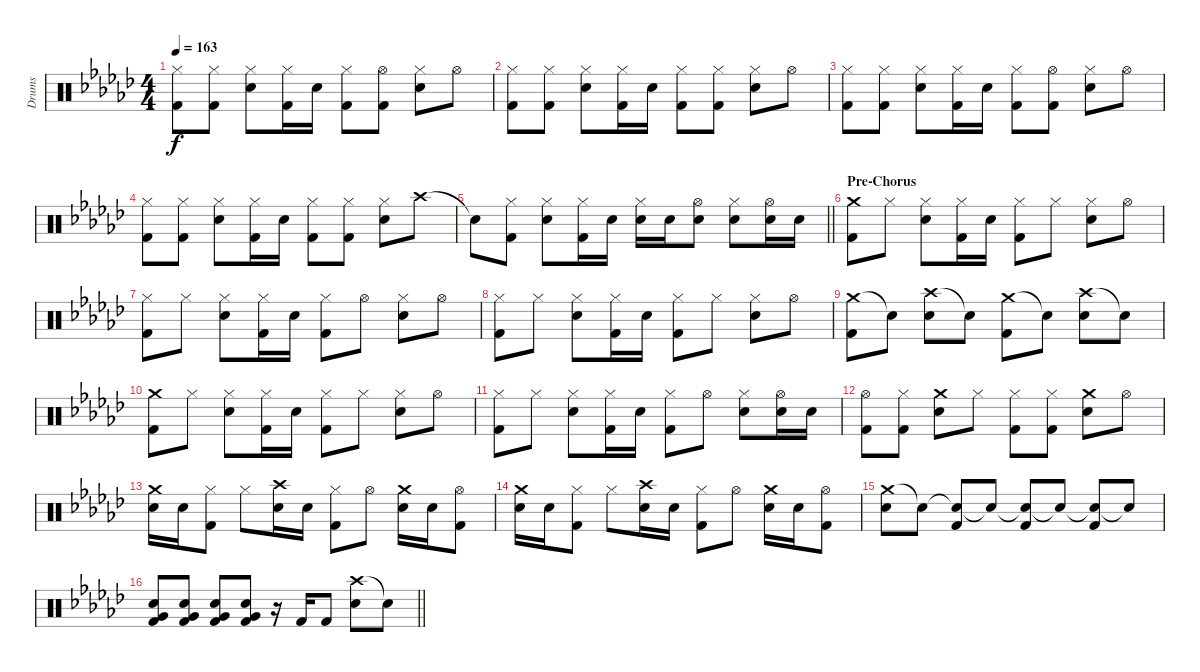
\track ("Drums" "Drums") {mute instrument percussion}
\staff {score}
\articulation defaults
\ts (4 4)
\tempo 163
\clef neutral
\ks gb
("Hi-Hat (closed)" "Kick (hit) 2").8{dy f} ("Hi-Hat (closed)" "Kick (hit) 2").8 ("Hi-Hat (closed)" "Snare (hit) 2").8 ("Hi-Hat (closed)" "Kick (hit) 2").16 "Snare (hit) 2".16 ("Hi-Hat (closed)" "Kick (hit) 2").8 ("Hi-Hat (open)" "Kick (hit) 2").8 ("Hi-Hat (closed)" "Snare (hit) 2").8 "Hi-Hat (open)".8 |
("Hi-Hat (closed)" "Kick (hit) 2").8 ("Hi-Hat (closed)" "Kick (hit) 2").8 ("Hi-Hat (closed)" "Snare (hit) 2").8 ("Hi-Hat (closed)" "Kick (hit) 2").16 "Snare (hit) 2".16 ("Hi-Hat (closed)" "Kick (hit) 2").8 ("Hi-Hat (closed)" "Kick (hit) 2").8 ("Hi-Hat (closed)" "Snare (hit) 2").8 "Hi-Hat (open)".8 |
("Hi-Hat (closed)" "Kick (hit) 2").8 ("Hi-Hat (closed)" "Kick (hit) 2").8 ("Hi-Hat (closed)" "Snare (hit) 2").8 ("Hi-Hat (closed)" "Kick (hit) 2").16 "Snare (hit) 2".16 ("Hi-Hat (closed)" "Kick (hit) 2").8 ("Hi-Hat (open)" "Kick (hit) 2").8 ("Hi-Hat (closed)" "Snare (hit) 2").8 "Hi-Hat (open)".8 |
("Hi-Hat (closed)" "Kick (hit) 2").8 ("Hi-Hat (closed)" "Kick (hit) 2").8 ("Hi-Hat (closed)" "Snare (hit) 2").8 ("Hi-Hat (closed)" "Kick (hit) 2").16 "Snare (hit) 2".16 ("Hi-Hat (closed)" "Kick (hit) 2").8 ("Hi-Hat (closed)" "Kick (hit) 2").8 ("Hi-Hat (closed)" "Snare (hit) 2").8 "Crash high (hit)".8 |
\barLineRight lightlight "Snare (hit)"{t}.8
("Hi-Hat (closed)" "Kick (hit) 2").8 ("Hi-Hat (closed)" "Snare (hit) 2").8 ("Hi-Hat (closed)" "Kick (hit) 2").16 "Snare (hit) 2".16 ("Hi-Hat (closed)" "Snare (hit) 2").16 "Snare (hit) 2".16 ("Hi-Hat (open)" "Snare (hit) 2").8 ("Hi-Hat (closed)" "Snare (hit) 2").8 ("Hi-Hat (open)" "Snare (hit) 2").16 "Snare (hit) 2".16 |
\section ("" "Pre-Chorus")
("Crash medium (hit)" "Kick (hit) 2").8 "Hi-Hat (closed)".8 ("Hi-Hat (closed)" "Snare (hit) 2").8 ("Hi-Hat (closed)" "Kick (hit) 2").16 "Snare (hit) 2".16 ("Hi-Hat (closed)" "Kick (hit) 2").8 "Hi-Hat (closed)".8 ("Hi-Hat (closed)" "Snare (hit) 2").8 "Hi-Hat (open)".8 |
("Hi-Hat (closed)" "Kick (hit) 2").8 "Hi-Hat (closed)".8 ("Hi-Hat (closed)" "Snare (hit) 2").8 ("Hi-Hat (closed)" "Kick (hit) 2").16 "Snare (hit) 2".16 ("Hi-Hat (closed)" "Kick (hit) 2").8 "Hi-Hat (open)".8 ("Hi-Hat (closed)" "Snare (hit) 2").8 "Hi-Hat (open)".8 |
("Hi-Hat (closed)" "Kick (hit) 2").8 "Hi-Hat (closed)".8 ("Hi-Hat (closed)" "Snare (hit) 2").8 ("Hi-Hat (closed)" "Kick (hit) 2").16 "Snare (hit) 2".16 ("Hi-Hat (closed)" "Kick (hit) 2").8 "Hi-Hat (closed)".8 ("Hi-Hat (closed)" "Snare (hit) 2").8 "Hi-Hat (open)".8 |
("Crash medium (hit)" "Kick (hit) 2").8 "Snare (hit)"{t}.8 ("Crash high (hit)" "Snare (hit) 2").8 "Snare (hit)"{t}.8 ("Crash medium (hit)" "Kick (hit) 2").8 "Snare (hit)"{t}.8 ("Crash high (hit)" "Snare (hit) 2").8 "Snare (hit)"{t}.8 |
("Crash medium (hit)" "Kick (hit) 2").8 "Hi-Hat (closed)".8 ("Hi-Hat (closed)" "Snare (hit) 2").8 ("Hi-Hat (closed)" "Kick (hit) 2").16 "Snare (hit) 2".16 ("Hi-Hat (closed)" "Kick (hit) 2").8 "Hi-Hat (closed)".8 ("Hi-Hat (closed)" "Snare (hit) 2").8 "Hi-Hat (open)".8 |
("Hi-Hat (closed)" "Kick (hit) 2").8 "Hi-Hat (closed)".8 ("Hi-Hat (closed)" "Snare (hit) 2").8 ("Hi-Hat (closed)" "Kick (hit) 2").16 "Snare (hit) 2".16 ("Hi-Hat (closed)" "Kick (hit) 2").8 "Hi-Hat (open)".8 ("Hi-Hat (closed)" "Snare (hit) 2").8 ("Hi-Hat (open)" "Snare (hit) 2").16 "Snare (hit) 2".16 |
("Hi-Hat (open)" "Kick (hit) 2").8 ("Hi-Hat (closed)" "Kick (hit) 2").8 ("Crash medium (hit)" "Snare (hit) 2").8 "Hi-Hat (closed)".8 ("Hi-Hat (closed)" "Kick (hit) 2").8 ("Hi-Hat (closed)" "Kick (hit) 2").8 ("Crash medium (hit)" "Snare (hit) 2").8 "Hi-Hat (open)".8 |
("Crash medium (hit)" "Snare (hit) 2").16 "Snare (hit) 2".16 ("Hi-Hat (closed)" "Kick (hit) 2").8 "Hi-Hat (closed)".8 ("Crash high (hit)" "Snare (hit) 2").16 "Snare (hit) 2".16 ("Hi-Hat (closed)" "Kick (hit) 2").8 "Hi-Hat (open)".8 ("Crash medium (hit)" "Snare (hit) 2").16 "Snare (hit) 2".16 ("Hi-Hat (open)" "Kick (hit) 2").8 |
("Crash medium (hit)" "Snare (hit) 2").16 "Snare (hit) 2".16 ("Hi-Hat (closed)" "Kick (hit) 2").8 "Hi-Hat (closed)".8 ("Crash high (hit)" "Snare (hit) 2").16 "Snare (hit) 2".16 ("Hi-Hat (closed)" "Kick (hit) 2").8 "Hi-Hat (open)".8 ("Crash medium (hit)" "Snare (hit) 2").16 "Snare (hit) 2".16 ("Hi-Hat (open)" "Kick (hit) 2").8 |
("Crash medium (hit)" "Snare (hit) 2").8 "Snare (hit)"{t}.8 ("Snare (hit)"{t} "Kick (hit) 2").8 "Snare (hit)"{t}.8 ("Snare (hit)"{t} "Kick (hit) 2").8 "Snare (hit)"{t}.8 ("Snare (hit)"{t} "Kick (hit) 2").8 "Snare (hit)"{t}.8 |
\barLineRight lightlight
("Snare (hit) 2" "Very Low Tom (hit)" "Kick (hit) 2").8 ("Snare (hit) 2" "Very Low Tom (hit)" "Kick (hit) 2").8 ("Snare (hit) 2" "Very Low Tom (hit)" "Kick (hit) 2").8 ("Snare (hit) 2" "Very Low Tom (hit)" "Kick (hit) 2").8 r.16 "Kick (hit) 2".16 "Kick (hit) 2".8 ("Crash high (hit)" "Snare (hit) 2").8 "Snare (hit)"{t}.8
